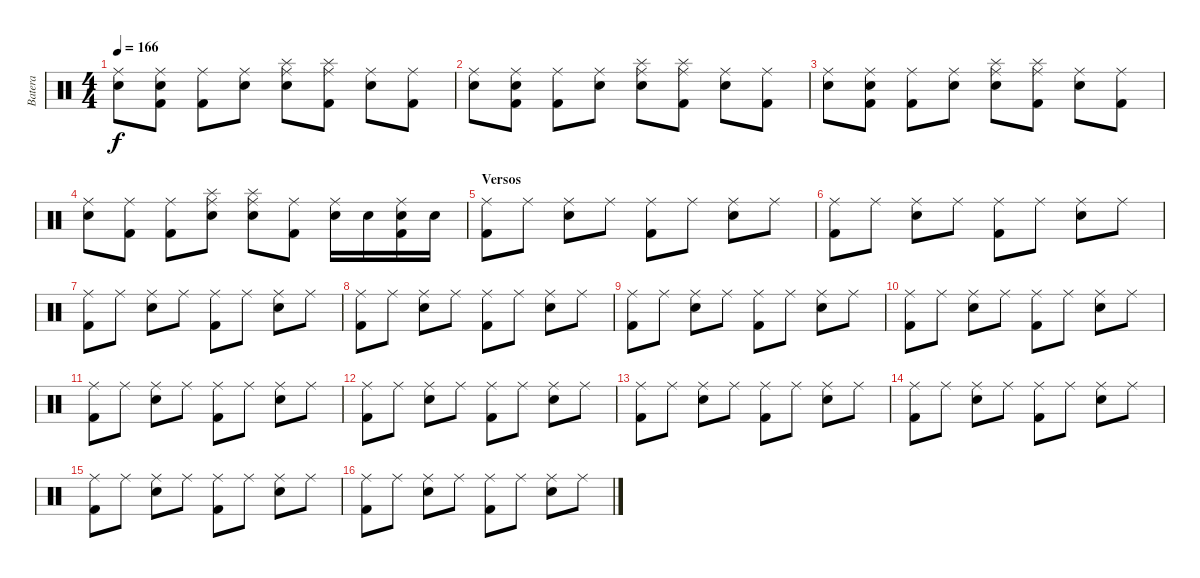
\track ("Batera" "Batera") {instrument percussion}
\staff {score}
\articulation defaults
\ts (4 4)
\tempo 166
\clef neutral
\ks c
("Ride (middle)" "Snare (hit) 2").8{dy f} ("Ride (middle)" "Kick (hit) 2" "Snare (hit) 2").8 ("Ride (middle)" "Kick (hit) 2").8 ("Ride (middle)" "Snare (hit) 2").8 ("Ride (middle)" "Splash (hit)" "Snare (hit) 2").8 ("Ride (middle)" "Splash (hit)" "Kick (hit) 2").8 ("Ride (middle)" "Snare (hit) 2").8 ("Ride (middle)" "Kick (hit) 2").8 |
("Ride (middle)" "Snare (hit) 2").8 ("Ride (middle)" "Kick (hit) 2" "Snare (hit) 2").8 ("Ride (middle)" "Kick (hit) 2").8 ("Ride (middle)" "Snare (hit) 2").8 ("Ride (middle)" "Splash (hit)" "Snare (hit) 2").8 ("Ride (middle)" "Splash (hit)" "Kick (hit) 2").8 ("Ride (middle)" "Snare (hit) 2").8 ("Ride (middle)" "Kick (hit) 2").8 |
("Ride (middle)" "Snare (hit) 2").8 ("Ride (middle)" "Kick (hit) 2" "Snare (hit) 2").8 ("Ride (middle)" "Kick (hit) 2").8 ("Ride (middle)" "Snare (hit) 2").8 ("Ride (middle)" "Splash (hit)" "Snare (hit) 2").8 ("Ride (middle)" "Splash (hit)" "Kick (hit) 2").8 ("Ride (middle)" "Snare (hit) 2").8 ("Ride (middle)" "Kick (hit) 2").8 |
("Ride (middle)" "Snare (hit) 2").8 ("Ride (middle)" "Kick (hit) 2").8 ("Ride (middle)" "Kick (hit) 2").8 ("Ride (middle)" "Splash (hit)" "Snare (hit) 2").8 ("Ride (middle)" "Splash (hit)" "Snare (hit) 2").8 ("Ride (middle)" "Kick (hit) 2").8 ("Ride (middle)" "Snare (hit) 2").16 "Snare (hit) 2".16 ("Ride (middle)" "Kick (hit) 2" "Snare (hit) 2").16 "Snare (hit) 2".16 |
\section ("" "Versos")
("Ride (middle)" "Kick (hit) 2").8 "Ride (middle)".8 ("Ride (middle)" "Snare (hit) 2").8 "Ride (middle)".8 ("Ride (middle)" "Kick (hit) 2").8 "Ride (middle)".8 ("Ride (middle)" "Snare (hit) 2").8 "Ride (middle)".8 |
("Ride (middle)" "Kick (hit) 2").8 "Ride (middle)".8 ("Ride (middle)" "Snare (hit) 2").8 "Ride (middle)".8 ("Ride (middle)" "Kick (hit) 2").8 "Ride (middle)".8 ("Ride (middle)" "Snare (hit) 2").8 "Ride (middle)".8 |
("Ride (middle)" "Kick (hit) 2").8 "Ride (middle)".8 ("Ride (middle)" "Snare (hit) 2").8 "Ride (middle)".8 ("Ride (middle)" "Kick (hit) 2").8 "Ride (middle)".8 ("Ride (middle)" "Snare (hit) 2").8 "Ride (middle)".8 |
("Ride (middle)" "Kick (hit) 2").8 "Ride (middle)".8 ("Ride (middle)" "Snare (hit) 2").8 "Ride (middle)".8 ("Ride (middle)" "Kick (hit) 2").8 "Ride (middle)".8 ("Ride (middle)" "Snare (hit) 2").8 "Ride (middle)".8 |
("Ride (middle)" "Kick (hit) 2").8 "Ride (middle)".8 ("Ride (middle)" "Snare (hit) 2").8 "Ride (middle)".8 ("Ride (middle)" "Kick (hit) 2").8 "Ride (middle)".8 ("Ride (middle)" "Snare (hit) 2").8 "Ride (middle)".8 |
("Ride (middle)" "Kick (hit) 2").8 "Ride (middle)".8 ("Ride (middle)" "Snare (hit) 2").8 "Ride (middle)".8 ("Ride (middle)" "Kick (hit) 2").8 "Ride (middle)".8 ("Ride (middle)" "Snare (hit) 2").8 "Ride (middle)".8 |
("Ride (middle)" "Kick (hit) 2").8 "Ride (middle)".8 ("Ride (middle)" "Snare (hit) 2").8 "Ride (middle)".8 ("Ride (middle)" "Kick (hit) 2").8 "Ride (middle)".8 ("Ride (middle)" "Snare (hit) 2").8 "Ride (middle)".8 |
("Ride (middle)" "Kick (hit) 2").8 "Ride (middle)".8 ("Ride (middle)" "Snare (hit) 2").8 "Ride (middle)".8 ("Ride (middle)" "Kick (hit) 2").8 "Ride (middle)".8 ("Ride (middle)" "Snare (hit) 2").8 "Ride (middle)".8 |
("Ride (middle)" "Kick (hit) 2").8 "Ride (middle)".8 ("Ride (middle)" "Snare (hit) 2").8 "Ride (middle)".8 ("Ride (middle)" "Kick (hit) 2").8 "Ride (middle)".8 ("Ride (middle)" "Snare (hit) 2").8 "Ride (middle)".8 |
("Ride (middle)" "Kick (hit) 2").8 "Ride (middle)".8 ("Ride (middle)" "Snare (hit) 2").8 "Ride (middle)".8 ("Ride (middle)" "Kick (hit) 2").8 "Ride (middle)".8 ("Ride (middle)" "Snare (hit) 2").8 "Ride (middle)".8 |
("Ride (middle)" "Kick (hit) 2").8 "Ride (middle)".8 ("Ride (middle)" "Snare (hit) 2").8 "Ride (middle)".8 ("Ride (middle)" "Kick (hit) 2").8 "Ride (middle)".8 ("Ride (middle)" "Snare (hit) 2").8 "Ride (middle)".8 |
("Ride (middle)" "Kick (hit) 2").8 "Ride (middle)".8 ("Ride (middle)" "Snare (hit) 2").8 "Ride (middle)".8 ("Ride (middle)" "Kick (hit) 2").8 "Ride (middle)".8 ("Ride (middle)" "Snare (hit) 2").8 "Ride (middle)".8
